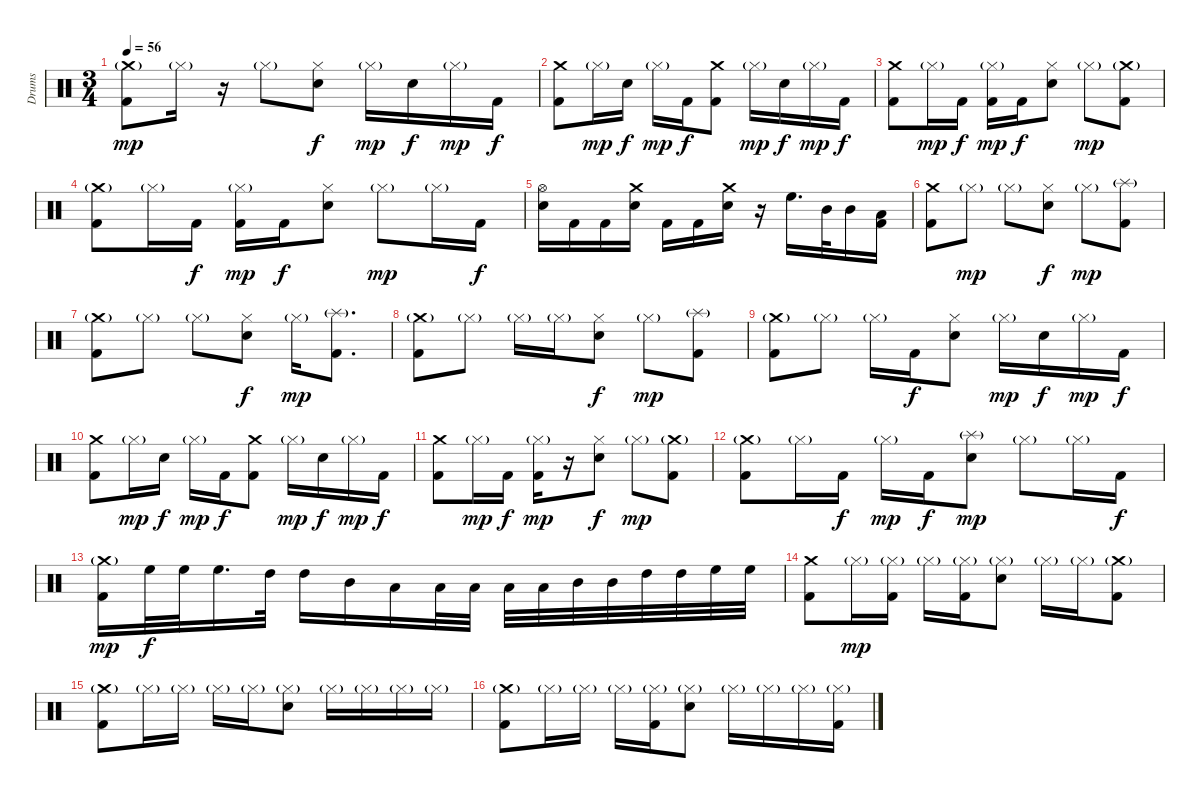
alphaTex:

\track ("Drums" "Drums") {instrument percussion}
\staff {score}
\articulation defaults
\ts (3 4)
\tempo 56
\clef neutral
\ks c
("Crash medium (hit)"{g} "Kick (hit) 2").8{dy mp} "Hi-Hat (closed)"{g}.16 r.16 "Hi-Hat (closed)"{g}.8 ("Hi-Hat (closed)" "Electric Snare (hit)").8{dy f} "Hi-Hat (closed)"{g}.16{dy mp} "Electric Snare (hit)".16{dy f} "Hi-Hat (closed)"{g}.16{dy mp} "Kick (hit) 2".16{dy f} |
("Crash medium (hit)" "Kick (hit) 2").8 "Hi-Hat (closed)"{g}.16{dy mp} "Electric Snare (hit)".16{dy f} "Hi-Hat (closed)"{g}.16{dy mp} "Kick (hit) 2".16{dy f} ("Crash medium (hit)" "Kick (hit) 2").8 "Hi-Hat (closed)"{g}.16{dy mp} "Electric Snare (hit)".16{dy f} "Hi-Hat (closed)"{g}.16{dy mp} "Kick (hit) 2".16{dy f} |
("Crash medium (hit)" "Kick (hit) 2").8 "Hi-Hat (closed)"{g}.16{dy mp} "Kick (hit) 2".16{dy f} ("Hi-Hat (closed)"{g} "Kick (hit) 2").16{dy mp} "Kick (hit) 2".16{dy f} ("Hi-Hat (closed)" "Electric Snare (hit)").8 "Hi-Hat (closed)"{g}.8{dy mp} ("Crash medium (hit)"{g} "Kick (hit) 2").8 |
("Crash medium (hit)"{g} "Kick (hit) 2").8 "Hi-Hat (closed)"{g}.16 "Kick (hit) 2".16{dy f} ("Hi-Hat (closed)"{g} "Kick (hit) 2").16{dy mp} "Kick (hit) 2".16{dy f} ("Hi-Hat (closed)" "Electric Snare (hit)").8 "Hi-Hat (closed)"{g}.8{dy mp} "Hi-Hat (closed)"{g}.16 "Kick (hit) 2".16{dy f} |
("Hi-Hat (open)" "Electric Snare (hit)").16 "Kick (hit) 2".16 "Kick (hit) 2".16 ("Crash medium (hit)" "Electric Snare (hit)").16 "Kick (hit) 2".16 "Kick (hit) 2".16 ("Crash medium (hit)" "Electric Snare (hit)").16 r.16 "High Floor Tom (hit)".16{d} "Mid Tom (hit)".32 "Mid Tom (hit)".16 ("Low Tom (hit)" "Kick (hit) 2").16 |
("Crash medium (hit)" "Kick (hit) 2").8 "Hi-Hat (closed)"{g}.8{dy mp} "Hi-Hat (closed)"{g}.8 ("Hi-Hat (closed)" "Electric Snare (hit)").8{dy f} "Hi-Hat (closed)"{g}.8{dy mp} ("Splash (hit)"{g} "Kick (hit) 2").8 |
("Crash medium (hit)"{g} "Kick (hit) 2").8 "Hi-Hat (closed)"{g}.8 "Hi-Hat (closed)"{g}.8 ("Hi-Hat (closed)" "Electric Snare (hit)").8{dy f} "Hi-Hat (closed)"{g}.16{dy mp} ("Splash (hit)"{g} "Kick (hit) 2").8{d} |
("Crash medium (hit)"{g} "Kick (hit) 2").8 "Hi-Hat (closed)"{g}.8 "Hi-Hat (closed)"{g}.16 "Hi-Hat (closed)"{g}.16 ("Hi-Hat (closed)" "Electric Snare (hit)").8{dy f} "Hi-Hat (closed)"{g}.8{dy mp} ("Splash (hit)"{g} "Kick (hit) 2").8 |
("Crash medium (hit)"{g} "Kick (hit) 2").8 "Hi-Hat (closed)"{g}.8 "Hi-Hat (closed)"{g}.16 "Kick (hit) 2".16{dy f} ("Hi-Hat (closed)" "Electric Snare (hit)").8 "Hi-Hat (closed)"{g}.16{dy mp} "Electric Snare (hit)".16{dy f} "Hi-Hat (closed)"{g}.16{dy mp} "Kick (hit) 2".16{dy f} |
("Crash medium (hit)" "Kick (hit) 2").8 "Hi-Hat (closed)"{g}.16{dy mp} "Electric Snare (hit)".16{dy f} "Hi-Hat (closed)"{g}.16{dy mp} "Kick (hit) 2".16{dy f} ("Crash medium (hit)" "Kick (hit) 2").8 "Hi-Hat (closed)"{g}.16{dy mp} "Electric Snare (hit)".16{dy f} "Hi-Hat (closed)"{g}.16{dy mp} "Kick (hit) 2".16{dy f} |
("Crash medium (hit)" "Kick (hit) 2").8 "Hi-Hat (closed)"{g}.16{dy mp} "Kick (hit) 2".16{dy f} ("Hi-Hat (closed)"{g} "Kick (hit) 2").16{dy mp} r.16 ("Hi-Hat (closed)" "Electric Snare (hit)").8{dy f} "Hi-Hat (closed)"{g}.8{dy mp} ("Crash medium (hit)"{g} "Kick (hit) 2").8 |
("Crash medium (hit)"{g} "Kick (hit) 2").8 "Hi-Hat (closed)"{g}.16 "Kick (hit) 2".16{dy f} "Hi-Hat (closed)"{g}.16{dy mp} "Kick (hit) 2".16{dy f} ("Splash (hit)"{g} "Electric Snare (hit)").8{dy mp} "Hi-Hat (closed)"{g}.8 "Hi-Hat (closed)"{g}.16 "Kick (hit) 2".16{dy f} |
("Crash medium (hit)"{g} "Kick (hit) 2").16{dy mp} "High Floor Tom (hit)".32{dy f} "High Floor Tom (hit)".32 "High Floor Tom (hit)".16{d} "High Tom (hit)".32 "High Tom (hit)".16 "Mid Tom (hit)".16 "Low Tom (hit)".16 "Low Floor Tom (hit)".32 "Low Floor Tom (hit)".32 "Low Tom (hit)".32 "Low Tom (hit)".32 "Mid Tom (hit)".32 "Mid Tom (hit)".32 "High Tom (hit)".32 "High Tom (hit)".32 "High Floor Tom (hit)".32 "High Floor Tom (hit)".32 |
("Crash medium (hit)" "Kick (hit) 2").8 "Hi-Hat (closed)"{g}.16{dy mp} ("Hi-Hat (closed)"{g} "Kick (hit) 2").16 "Hi-Hat (closed)"{g}.16 ("Hi-Hat (closed)"{g} "Kick (hit) 2").16 ("Hi-Hat (closed)"{g} "Electric Snare (hit)").8 "Hi-Hat (closed)"{g}.16 "Hi-Hat (closed)"{g}.16 ("Crash medium (hit)"{g} "Kick (hit) 2").8 |
("Crash medium (hit)"{g} "Kick (hit) 2").8 "Hi-Hat (closed)"{g}.16 "Hi-Hat (closed)"{g}.16 "Hi-Hat (closed)"{g}.16 "Hi-Hat (closed)"{g}.16 ("Hi-Hat (closed)"{g} "Electric Snare (hit)").8 "Hi-Hat (closed)"{g}.16 "Hi-Hat (closed)"{g}.16 "Hi-Hat (closed)"{g}.16 "Hi-Hat (closed)"{g}.16 |
("Crash medium (hit)"{g} "Kick (hit) 2").8 "Hi-Hat (closed)"{g}.16 "Hi-Hat (closed)"{g}.16 "Hi-Hat (closed)"{g}.16 ("Hi-Hat (closed)"{g} "Kick (hit) 2").16 ("Hi-Hat (closed)"{g} "Electric Snare (hit)").8 "Hi-Hat (closed)"{g}.16 "Hi-Hat (closed)"{g}.16 "Hi-Hat (closed)"{g}.16 ("Hi-Hat (closed)"{g} "Kick (hit) 2").16
